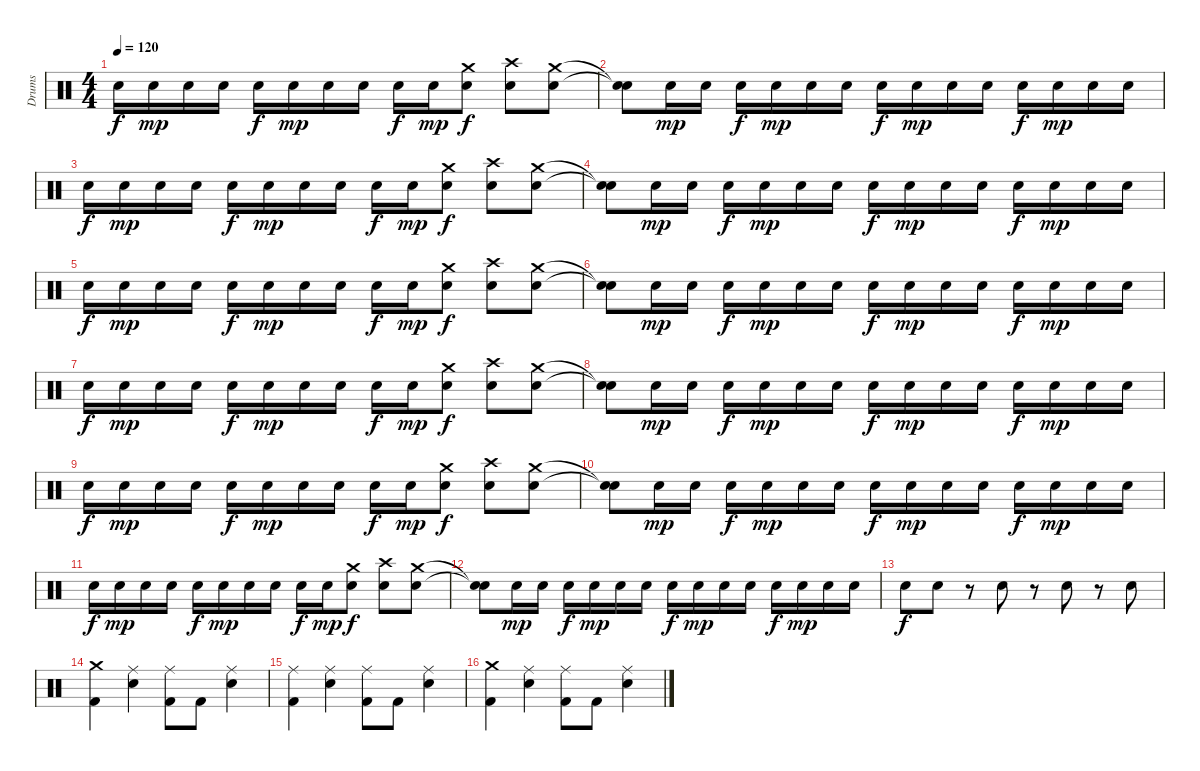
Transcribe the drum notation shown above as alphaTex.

\track ("Drums" "Drums") {instrument percussion}
\staff {score}
\articulation defaults
\ts (4 4)
\tempo 120
\clef neutral
\ks c "Snare (hit) 2".16{dy f} "Snare (hit) 2".16{dy mp} "Snare (hit) 2".16 "Snare (hit) 2".16 "Snare (hit) 2".16{dy f} "Snare (hit) 2".16{dy mp} "Snare (hit) 2".16 "Snare (hit) 2".16 "Snare (hit) 2".16{dy f} "Snare (hit) 2".16{dy mp}
("Crash medium (hit)" "Snare (hit) 2").8{dy f} ("Crash high (hit)" "Snare (hit) 2").8 ("Crash medium (hit)" "Snare (hit) 2").8 |
("Snare (hit)"{t} "Snare (hit)"{t}).8 "Snare (hit) 2".16{dy mp} "Snare (hit) 2".16 "Snare (hit) 2".16{dy f} "Snare (hit) 2".16{dy mp} "Snare (hit) 2".16 "Snare (hit) 2".16 "Snare (hit) 2".16{dy f} "Snare (hit) 2".16{dy mp} "Snare (hit) 2".16 "Snare (hit) 2".16 "Snare (hit) 2".16{dy f} "Snare (hit) 2".16{dy mp} "Snare (hit) 2".16 "Snare (hit) 2".16 |
"Snare (hit) 2".16{dy f} "Snare (hit) 2".16{dy mp} "Snare (hit) 2".16 "Snare (hit) 2".16 "Snare (hit) 2".16{dy f} "Snare (hit) 2".16{dy mp} "Snare (hit) 2".16 "Snare (hit) 2".16 "Snare (hit) 2".16{dy f} "Snare (hit) 2".16{dy mp} ("Crash medium (hit)" "Snare (hit) 2").8{dy f} ("Crash high (hit)" "Snare (hit) 2").8 ("Crash medium (hit)" "Snare (hit) 2").8 |
("Snare (hit)"{t} "Snare (hit)"{t}).8 "Snare (hit) 2".16{dy mp} "Snare (hit) 2".16 "Snare (hit) 2".16{dy f} "Snare (hit) 2".16{dy mp} "Snare (hit) 2".16 "Snare (hit) 2".16 "Snare (hit) 2".16{dy f} "Snare (hit) 2".16{dy mp} "Snare (hit) 2".16 "Snare (hit) 2".16 "Snare (hit) 2".16{dy f} "Snare (hit) 2".16{dy mp} "Snare (hit) 2".16 "Snare (hit) 2".16 |
"Snare (hit) 2".16{dy f} "Snare (hit) 2".16{dy mp} "Snare (hit) 2".16 "Snare (hit) 2".16 "Snare (hit) 2".16{dy f} "Snare (hit) 2".16{dy mp} "Snare (hit) 2".16 "Snare (hit) 2".16 "Snare (hit) 2".16{dy f} "Snare (hit) 2".16{dy mp} ("Crash medium (hit)" "Snare (hit) 2").8{dy f} ("Crash high (hit)" "Snare (hit) 2").8 ("Crash medium (hit)" "Snare (hit) 2").8 |
("Snare (hit)"{t} "Snare (hit)"{t}).8 "Snare (hit) 2".16{dy mp} "Snare (hit) 2".16 "Snare (hit) 2".16{dy f} "Snare (hit) 2".16{dy mp} "Snare (hit) 2".16 "Snare (hit) 2".16 "Snare (hit) 2".16{dy f} "Snare (hit) 2".16{dy mp} "Snare (hit) 2".16 "Snare (hit) 2".16 "Snare (hit) 2".16{dy f} "Snare (hit) 2".16{dy mp} "Snare (hit) 2".16 "Snare (hit) 2".16 |
"Snare (hit) 2".16{dy f} "Snare (hit) 2".16{dy mp} "Snare (hit) 2".16 "Snare (hit) 2".16 "Snare (hit) 2".16{dy f} "Snare (hit) 2".16{dy mp} "Snare (hit) 2".16 "Snare (hit) 2".16 "Snare (hit) 2".16{dy f} "Snare (hit) 2".16{dy mp} ("Crash medium (hit)" "Snare (hit) 2").8{dy f} ("Crash high (hit)" "Snare (hit) 2").8 ("Crash medium (hit)" "Snare (hit) 2").8 |
("Snare (hit)"{t} "Snare (hit)"{t}).8 "Snare (hit) 2".16{dy mp} "Snare (hit) 2".16 "Snare (hit) 2".16{dy f} "Snare (hit) 2".16{dy mp} "Snare (hit) 2".16 "Snare (hit) 2".16 "Snare (hit) 2".16{dy f} "Snare (hit) 2".16{dy mp} "Snare (hit) 2".16 "Snare (hit) 2".16 "Snare (hit) 2".16{dy f} "Snare (hit) 2".16{dy mp} "Snare (hit) 2".16 "Snare (hit) 2".16 |
"Snare (hit) 2".16{dy f} "Snare (hit) 2".16{dy mp} "Snare (hit) 2".16 "Snare (hit) 2".16 "Snare (hit) 2".16{dy f} "Snare (hit) 2".16{dy mp} "Snare (hit) 2".16 "Snare (hit) 2".16 "Snare (hit) 2".16{dy f} "Snare (hit) 2".16{dy mp} ("Crash medium (hit)" "Snare (hit) 2").8{dy f} ("Crash high (hit)" "Snare (hit) 2").8 ("Crash medium (hit)" "Snare (hit) 2").8 |
("Snare (hit)"{t} "Snare (hit)"{t}).8 "Snare (hit) 2".16{dy mp} "Snare (hit) 2".16 "Snare (hit) 2".16{dy f} "Snare (hit) 2".16{dy mp} "Snare (hit) 2".16 "Snare (hit) 2".16 "Snare (hit) 2".16{dy f} "Snare (hit) 2".16{dy mp} "Snare (hit) 2".16 "Snare (hit) 2".16 "Snare (hit) 2".16{dy f} "Snare (hit) 2".16{dy mp} "Snare (hit) 2".16 "Snare (hit) 2".16 |
"Snare (hit) 2".16{dy f} "Snare (hit) 2".16{dy mp} "Snare (hit) 2".16 "Snare (hit) 2".16 "Snare (hit) 2".16{dy f} "Snare (hit) 2".16{dy mp} "Snare (hit) 2".16 "Snare (hit) 2".16 "Snare (hit) 2".16{dy f} "Snare (hit) 2".16{dy mp} ("Crash medium (hit)" "Snare (hit) 2").8{dy f} ("Crash high (hit)" "Snare (hit) 2").8 ("Crash medium (hit)" "Snare (hit) 2").8 |
("Snare (hit)"{t} "Snare (hit)"{t}).8 "Snare (hit) 2".16{dy mp} "Snare (hit) 2".16 "Snare (hit) 2".16{dy f} "Snare (hit) 2".16{dy mp} "Snare (hit) 2".16 "Snare (hit) 2".16 "Snare (hit) 2".16{dy f} "Snare (hit) 2".16{dy mp} "Snare (hit) 2".16 "Snare (hit) 2".16 "Snare (hit) 2".16{dy f} "Snare (hit) 2".16{dy mp} "Snare (hit) 2".16 "Snare (hit) 2".16 |
"Snare (hit) 2".8{dy f} "Snare (hit) 2".8 r.8 "Snare (hit) 2".8 r.8 "Snare (hit) 2".8 r.8 "Snare (hit) 2".8 |
("Kick (hit) 2" "Crash medium (hit)").4 ("Snare (hit) 2" "Ride (middle)").4 ("Ride (middle)" "Kick (hit) 2").8 "Kick (hit) 2".8 ("Ride (middle)" "Snare (hit) 2").4 |
("Ride (middle)" "Kick (hit) 2").4 ("Ride (middle)" "Snare (hit) 2").4 ("Ride (middle)" "Kick (hit) 2").8 "Kick (hit) 2".8 ("Ride (middle)" "Snare (hit) 2").4 |
("Kick (hit) 2" "Crash medium (hit)").4 ("Ride (middle)" "Snare (hit) 2").4 ("Ride (middle)" "Kick (hit) 2").8 "Kick (hit) 2".8 ("Ride (middle)" "Snare (hit) 2").4
